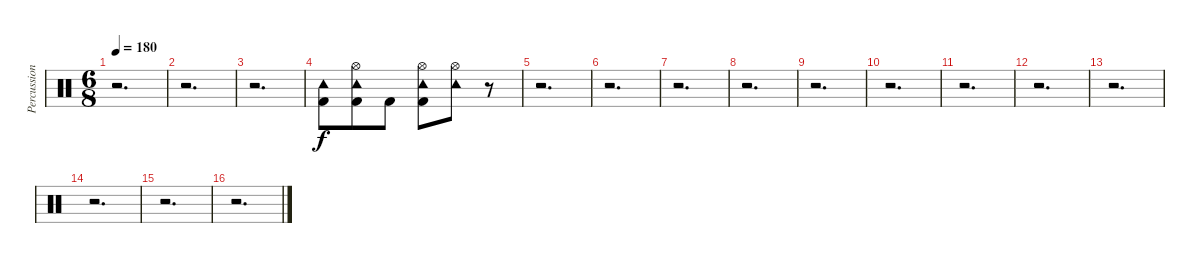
\track ("Percussion" "Percussion") {instrument percussion}
\staff {score}
\articulation defaults
\ts (6 8)
\tempo 180
\clef neutral
\ks c
r.2{d dy f} |
r.2{d} |
r.2{d} |
("Kick (hit) 2" "Tambourine (hit)").8 ("Kick (hit) 2" "Hi-Hat (open)" "Tambourine (hit)").8 "Kick (hit) 2".8 ("Kick (hit) 2" "Hi-Hat (open)" "Tambourine (hit)").8 ("Hi-Hat (open)" "Tambourine (hit)").8 r.8 |
r.2{d} |
r.2{d} |
r.2{d} |
r.2{d} |
r.2{d} |
r.2{d} |
r.2{d} |
r.2{d} |
r.2{d} |
r.2{d} |
r.2{d} |
r.2{d}
